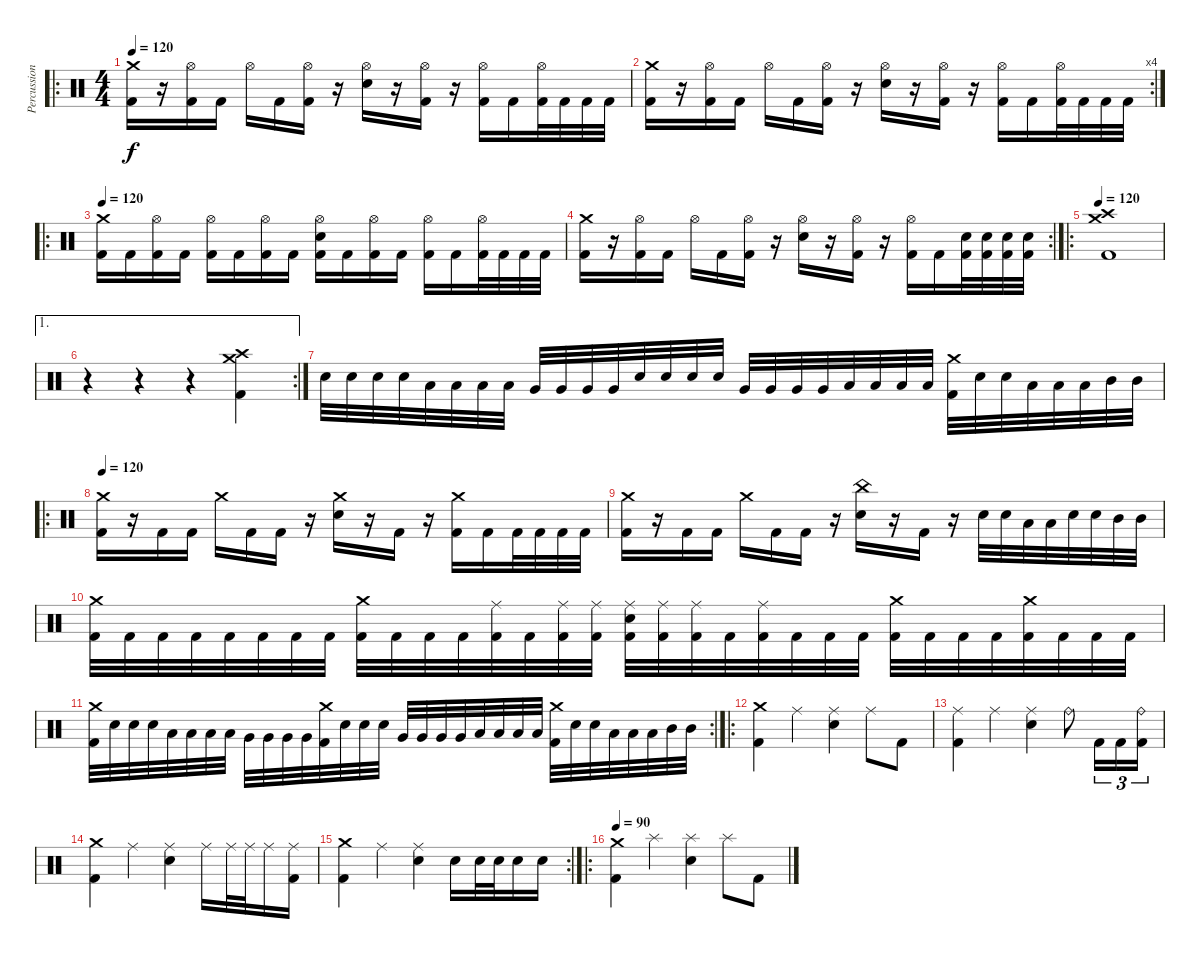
\track ("Percussion" "Percussion") {instrument percussion}
\staff {score}
\articulation defaults
\ro
\ts (4 4)
\tempo 120
\clef neutral
\ks c
("Kick (hit) 2" "Crash medium (hit)").16{dy f} r.16 ("Kick (hit) 2" "Hi-Hat (open)").16 "Kick (hit) 2".16 "Hi-Hat (open)".16 "Kick (hit) 2".16 ("Kick (hit) 2" "Hi-Hat (open)").16 r.16 ("Electric Snare (hit)" "Hi-Hat (open)").16 r.16 ("Kick (hit) 2" "Hi-Hat (open)").16 r.16 ("Kick (hit) 2" "Hi-Hat (open)").16 "Kick (hit) 2".16 ("Kick (hit) 2" "Hi-Hat (open)").32 "Kick (hit) 2".32 "Kick (hit) 2".32 "Kick (hit) 2".32 |
\rc 4
("Kick (hit) 2" "Crash medium (hit)").16 r.16 ("Kick (hit) 2" "Hi-Hat (open)").16 "Kick (hit) 2".16 "Hi-Hat (open)".16 "Kick (hit) 2".16 ("Kick (hit) 2" "Hi-Hat (open)").16 r.16 ("Electric Snare (hit)" "Hi-Hat (open)").16 r.16 ("Kick (hit) 2" "Hi-Hat (open)").16 r.16 ("Kick (hit) 2" "Hi-Hat (open)").16 "Kick (hit) 2".16 ("Kick (hit) 2" "Hi-Hat (open)").32 "Kick (hit) 2".32 "Kick (hit) 2".32 "Kick (hit) 2".32 |
\ro
\tempo 120
("Kick (hit) 2" "Crash medium (hit)").16 "Kick (hit) 2".16 ("Kick (hit) 2" "Hi-Hat (open)").16 "Kick (hit) 2".16 ("Kick (hit) 2" "Hi-Hat (open)").16 "Kick (hit) 2".16 ("Kick (hit) 2" "Hi-Hat (open)").16 "Kick (hit) 2".16 ("Kick (hit) 2" "Electric Snare (hit)" "Hi-Hat (open)").16 "Kick (hit) 2".16 ("Kick (hit) 2" "Hi-Hat (open)").16 "Kick (hit) 2".16 ("Kick (hit) 2" "Hi-Hat (open)").16 "Kick (hit) 2".16 ("Kick (hit) 2" "Hi-Hat (open)").32 "Kick (hit) 2".32 "Kick (hit) 2".32 "Kick (hit) 2".32 |
\rc 2
("Kick (hit) 2" "Crash medium (hit)").16 r.16 ("Kick (hit) 2" "Hi-Hat (open)").16 "Kick (hit) 2".16 "Hi-Hat (open)".16 "Kick (hit) 2".16 ("Kick (hit) 2" "Hi-Hat (open)").16 r.16 ("Electric Snare (hit)" "Hi-Hat (open)").16 r.16 ("Kick (hit) 2" "Hi-Hat (open)").16 r.16 ("Kick (hit) 2" "Hi-Hat (open)").16 "Kick (hit) 2".16 ("Kick (hit) 2" "Electric Snare (hit)").32 ("Kick (hit) 2" "Electric Snare (hit)").32 ("Kick (hit) 2" "Electric Snare (hit)").32 ("Kick (hit) 2" "Electric Snare (hit)").32 |
\ro
\tempo 120
("Kick (hit) 2" "Crash high (hit)" "Crash medium (hit)").1 |
\ae 1
\rc 2
r.4 r.4 r.4 ("Kick (hit) 2" "Crash high (hit)" "Crash medium (hit)").4 |
"Electric Snare (hit)".32 "Electric Snare (hit)".32 "Electric Snare (hit)".32 "Electric Snare (hit)".32 "Low Floor Tom (hit)".32 "Low Floor Tom (hit)".32 "Low Floor Tom (hit)".32 "Low Floor Tom (hit)".32 "Very Low Tom (hit)".32 "Very Low Tom (hit)".32 "Very Low Tom (hit)".32 "Very Low Tom (hit)".32 "Electric Snare (hit)".32 "Electric Snare (hit)".32 "Electric Snare (hit)".32 "Electric Snare (hit)".32 "Very Low Tom (hit)".32 "Very Low Tom (hit)".32 "Very Low Tom (hit)".32 "Very Low Tom (hit)".32 "Low Tom (hit)".32 "Low Tom (hit)".32 "Low Tom (hit)".32 "Low Tom (hit)".32 ("Kick (hit) 2" "Crash medium (hit)").32 "Electric Snare (hit)".32 "Electric Snare (hit)".32 "Low Tom (hit)".32 "Low Tom (hit)".32 "Low Tom (hit)".32 "Mid Tom (hit)".32 "Mid Tom (hit)".32 |
\ro
\tempo 120
("Kick (hit) 2" "Crash medium (hit)").16 r.16 "Kick (hit) 2".16 "Kick (hit) 2".16 "Crash medium (hit)".16 "Kick (hit) 2".16 "Kick (hit) 2".16 r.16 ("Electric Snare (hit)" "Crash medium (hit)").16 r.16 "Kick (hit) 2".16 r.16 ("Kick (hit) 2" "Crash medium (hit)").16 "Kick (hit) 2".16 "Kick (hit) 2".32 "Kick (hit) 2".32 "Kick (hit) 2".32 "Kick (hit) 2".32 |
("Kick (hit) 2" "Crash medium (hit)").16 r.16 "Kick (hit) 2".16 "Kick (hit) 2".16 "Crash medium (hit)".16 "Kick (hit) 2".16 "Kick (hit) 2".16 r.16 ("Electric Snare (hit)" "China (hit)").16 r.16 "Kick (hit) 2".16 r.16 "Electric Snare (hit)".32 "Electric Snare (hit)".32 "Low Tom (hit)".32 "Low Tom (hit)".32 "Electric Snare (hit)".32 "Electric Snare (hit)".32 "Mid Tom (hit)".32 "Mid Tom (hit)".32 |
("Kick (hit) 2" "Crash medium (hit)").32 "Kick (hit) 2".32 "Kick (hit) 2".32 "Kick (hit) 2".32 "Kick (hit) 2".32 "Kick (hit) 2".32 "Kick (hit) 2".32 "Kick (hit) 2".32 ("Kick (hit) 2" "Crash medium (hit)").32 "Kick (hit) 2".32 "Kick (hit) 2".32 "Kick (hit) 2".32 ("Kick (hit) 2" "Ride (middle)").32 "Kick (hit) 2".32 ("Kick (hit) 2" "Ride (middle)").32 ("Kick (hit) 2" "Ride (middle)").32 ("Kick (hit) 2" "Electric Snare (hit)" "Ride (middle)").32 ("Kick (hit) 2" "Ride (middle)").32 ("Kick (hit) 2" "Ride (middle)").32 "Kick (hit) 2".32 ("Kick (hit) 2" "Ride (middle)").32 "Kick (hit) 2".32 "Kick (hit) 2".32 "Kick (hit) 2".32 ("Kick (hit) 2" "Crash medium (hit)").32 "Kick (hit) 2".32 "Kick (hit) 2".32 "Kick (hit) 2".32 ("Kick (hit) 2" "Crash medium (hit)").32 "Kick (hit) 2".32 "Kick (hit) 2".32 "Kick (hit) 2".32 |
\rc 2
("Kick (hit) 2" "Crash medium (hit)").32 "Electric Snare (hit)".32 "Electric Snare (hit)".32 "Electric Snare (hit)".32 "Low Floor Tom (hit)".32 "Low Floor Tom (hit)".32 "Low Floor Tom (hit)".32 "Low Floor Tom (hit)".32 "Very Low Tom (hit)".32 "Very Low Tom (hit)".32 "Very Low Tom (hit)".32 "Very Low Tom (hit)".32 ("Kick (hit) 2" "Crash medium (hit)").32 "Electric Snare (hit)".32 "Electric Snare (hit)".32 "Electric Snare (hit)".32 "Very Low Tom (hit)".32 "Very Low Tom (hit)".32 "Very Low Tom (hit)".32 "Very Low Tom (hit)".32 "Low Tom (hit)".32 "Low Tom (hit)".32 "Low Tom (hit)".32 "Low Tom (hit)".32 ("Kick (hit) 2" "Crash medium (hit)").32 "Electric Snare (hit)".32 "Electric Snare (hit)".32 "Low Tom (hit)".32 "Low Tom (hit)".32 "Low Tom (hit)".32 "Mid Tom (hit)".32 "Mid Tom (hit)".32 |
\ro
("Kick (hit) 2" "Crash medium (hit)").4 "Ride (middle)".4 ("Electric Snare (hit)" "Ride (middle)").4 "Ride (middle)".8 "Kick (hit) 2".8 |
("Kick (hit) 2" "Ride (middle)").4 "Ride (middle)".4 ("Electric Snare (hit)" "Ride (middle)").4 "Ride (bell)".8 "Kick (hit) 2".16{tu (3 2)} "Kick (hit) 2".16{tu (3 2)} ("Kick (hit) 2" "Ride (bell)").16{tu (3 2)} |
("Kick (hit) 2" "Crash medium (hit)").4 "Ride (middle)".4 ("Electric Snare (hit)" "Ride (middle)").4 "Ride (middle)".16 "Ride (middle)".32 "Ride (middle)".32 "Ride (middle)".16 ("Kick (hit) 2" "Ride (middle)").16 |
\rc 2
("Kick (hit) 2" "Crash medium (hit)").4 "Ride (middle)".4 ("Electric Snare (hit)" "Ride (middle)").4 "Electric Snare (hit)".16 "Electric Snare (hit)".32 "Electric Snare (hit)".32 "Electric Snare (hit)".16 "Electric Snare (hit)".16 |
\ro
\tempo 90
("Kick (hit) 2" "Crash medium (hit)").4 "Splash (hit)".4 ("Electric Snare (hit)" "Splash (hit)").4 "Splash (hit)".8 "Kick (hit) 2".8
